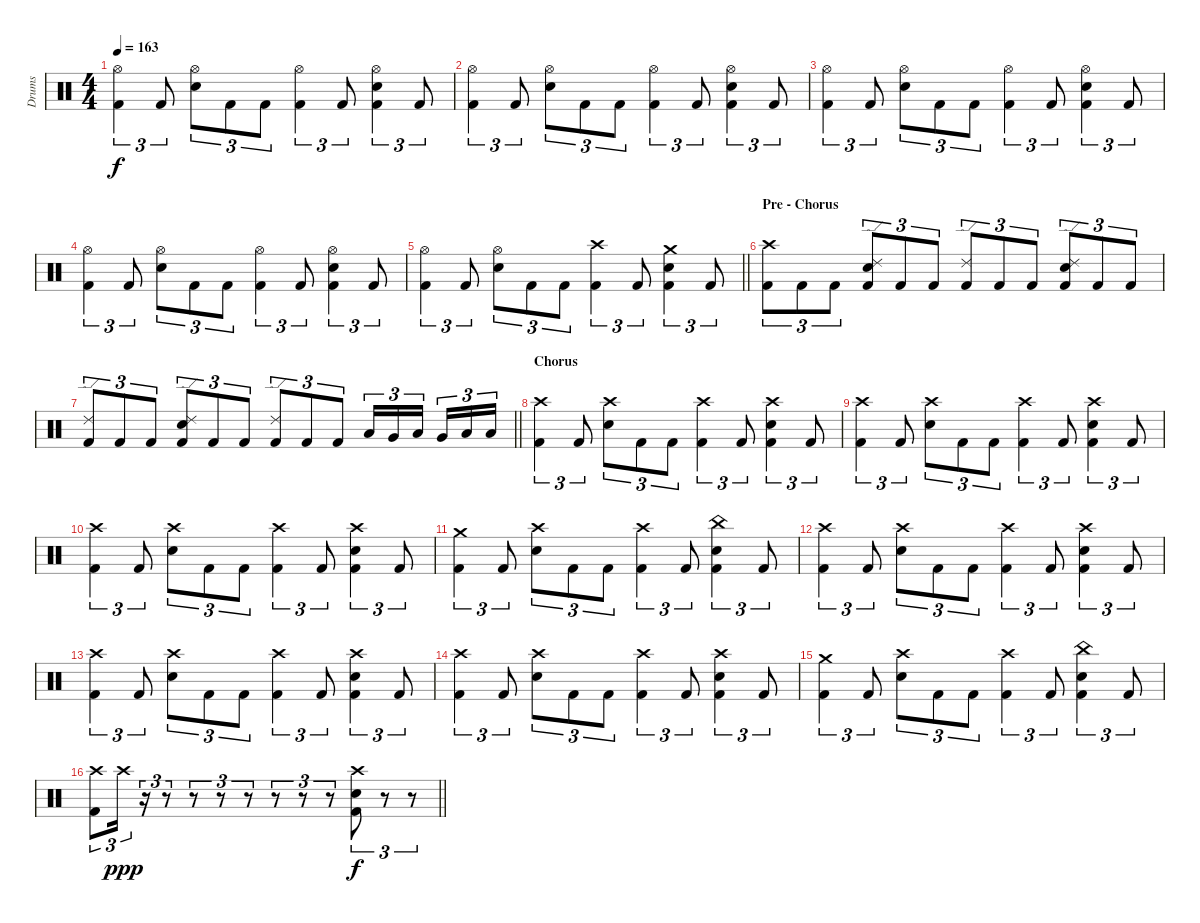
\track ("Drums" "Drums") {instrument percussion}
\staff {score}
\articulation defaults
\ts (4 4)
\tempo 163
\clef neutral
\ks c
("Hi-Hat (open)" "Kick (hit) 2").4{tu (3 2) dy f} "Kick (hit) 2".8{tu (3 2)} ("Hi-Hat (open)" "Electric Snare (hit)").8{tu (3 2)} "Kick (hit) 2".8{tu (3 2)} "Kick (hit) 2".8{tu (3 2)} ("Hi-Hat (open)" "Kick (hit) 2").4{tu (3 2)} "Kick (hit) 2".8{tu (3 2)} ("Hi-Hat (open)" "Electric Snare (hit)" "Kick (hit) 2").4{tu (3 2)} "Kick (hit) 2".8{tu (3 2)} |
("Hi-Hat (open)" "Kick (hit) 2").4{tu (3 2)} "Kick (hit) 2".8{tu (3 2)} ("Hi-Hat (open)" "Electric Snare (hit)").8{tu (3 2)} "Kick (hit) 2".8{tu (3 2)} "Kick (hit) 2".8{tu (3 2)} ("Hi-Hat (open)" "Kick (hit) 2").4{tu (3 2)} "Kick (hit) 2".8{tu (3 2)} ("Hi-Hat (open)" "Electric Snare (hit)" "Kick (hit) 2").4{tu (3 2)} "Kick (hit) 2".8{tu (3 2)} |
("Hi-Hat (open)" "Kick (hit) 2").4{tu (3 2)} "Kick (hit) 2".8{tu (3 2)} ("Hi-Hat (open)" "Electric Snare (hit)").8{tu (3 2)} "Kick (hit) 2".8{tu (3 2)} "Kick (hit) 2".8{tu (3 2)} ("Hi-Hat (open)" "Kick (hit) 2").4{tu (3 2)} "Kick (hit) 2".8{tu (3 2)} ("Hi-Hat (open)" "Electric Snare (hit)" "Kick (hit) 2").4{tu (3 2)} "Kick (hit) 2".8{tu (3 2)} |
("Hi-Hat (open)" "Kick (hit) 2").4{tu (3 2)} "Kick (hit) 2".8{tu (3 2)} ("Hi-Hat (open)" "Electric Snare (hit)").8{tu (3 2)} "Kick (hit) 2".8{tu (3 2)} "Kick (hit) 2".8{tu (3 2)} ("Hi-Hat (open)" "Kick (hit) 2").4{tu (3 2)} "Kick (hit) 2".8{tu (3 2)} ("Hi-Hat (open)" "Electric Snare (hit)" "Kick (hit) 2").4{tu (3 2)} "Kick (hit) 2".8{tu (3 2)} |
\barLineRight lightlight
("Hi-Hat (open)" "Kick (hit) 2").4{tu (3 2)} "Kick (hit) 2".8{tu (3 2)} ("Hi-Hat (open)" "Electric Snare (hit)").8{tu (3 2)} "Kick (hit) 2".8{tu (3 2)} "Kick (hit) 2".8{tu (3 2)} ("Crash high (hit)" "Kick (hit) 2").4{tu (3 2)} "Kick (hit) 2".8{tu (3 2)} ("Crash medium (hit)" "Electric Snare (hit)" "Kick (hit) 2").4{tu (3 2)} "Kick (hit) 2".8{tu (3 2)} |
\section ("" "Pre - Chorus")
("Crash high (hit)" "Kick (hit) 2").8{tu (3 2)} "Kick (hit) 2".8{tu (3 2)} "Kick (hit) 2".8{tu (3 2)} ("Ride (edge) 2" "Electric Snare (hit)" "Kick (hit) 2").8{tu (3 2)} "Kick (hit) 2".8{tu (3 2)} "Kick (hit) 2".8{tu (3 2)} ("Ride (edge) 2" "Kick (hit) 2").8{tu (3 2)} "Kick (hit) 2".8{tu (3 2)} "Kick (hit) 2".8{tu (3 2)} ("Ride (edge) 2" "Electric Snare (hit)" "Kick (hit) 2").8{tu (3 2)} "Kick (hit) 2".8{tu (3 2)} "Kick (hit) 2".8{tu (3 2)} |
\barLineRight lightlight
("Ride (edge) 2" "Kick (hit) 2").8{tu (3 2)} "Kick (hit) 2".8{tu (3 2)} "Kick (hit) 2".8{tu (3 2)} ("Ride (edge) 2" "Electric Snare (hit)" "Kick (hit) 2").8{tu (3 2)} "Kick (hit) 2".8{tu (3 2)} "Kick (hit) 2".8{tu (3 2)} ("Ride (edge) 2" "Kick (hit) 2").8{tu (3 2)} "Kick (hit) 2".8{tu (3 2)} "Kick (hit) 2".8{tu (3 2)} "Low Tom (hit)".16{tu (3 2)} "Very Low Tom (hit)".16{tu (3 2)} "Low Floor Tom (hit)".16{tu (3 2) beam splitsecondary} "Very Low Tom (hit)".16{tu (3 2)} "Low Floor Tom (hit)".16{tu (3 2)} "Low Floor Tom (hit)".16{tu (3 2)} |
\section ("" "Chorus")
("Crash high (hit)" "Kick (hit) 2").4{tu (3 2)} "Kick (hit) 2".8{tu (3 2)} ("Crash high (hit)" "Electric Snare (hit)").8{tu (3 2)} "Kick (hit) 2".8{tu (3 2)} "Kick (hit) 2".8{tu (3 2)} ("Crash high (hit)" "Kick (hit) 2").4{tu (3 2)} "Kick (hit) 2".8{tu (3 2)} ("Crash high (hit)" "Electric Snare (hit)" "Kick (hit) 2").4{tu (3 2)} "Kick (hit) 2".8{tu (3 2)} |
("Crash high (hit)" "Kick (hit) 2").4{tu (3 2)} "Kick (hit) 2".8{tu (3 2)} ("Crash high (hit)" "Electric Snare (hit)").8{tu (3 2)} "Kick (hit) 2".8{tu (3 2)} "Kick (hit) 2".8{tu (3 2)} ("Crash high (hit)" "Kick (hit) 2").4{tu (3 2)} "Kick (hit) 2".8{tu (3 2)} ("Crash high (hit)" "Electric Snare (hit)" "Kick (hit) 2").4{tu (3 2)} "Kick (hit) 2".8{tu (3 2)} |
("Crash high (hit)" "Kick (hit) 2").4{tu (3 2)} "Kick (hit) 2".8{tu (3 2)} ("Crash high (hit)" "Electric Snare (hit)").8{tu (3 2)} "Kick (hit) 2".8{tu (3 2)} "Kick (hit) 2".8{tu (3 2)} ("Crash high (hit)" "Kick (hit) 2").4{tu (3 2)} "Kick (hit) 2".8{tu (3 2)} ("Crash high (hit)" "Electric Snare (hit)" "Kick (hit) 2").4{tu (3 2)} "Kick (hit) 2".8{tu (3 2)} |
("Crash medium (hit)" "Kick (hit) 2").4{tu (3 2)} "Kick (hit) 2".8{tu (3 2)} ("Crash high (hit)" "Electric Snare (hit)").8{tu (3 2)} "Kick (hit) 2".8{tu (3 2)} "Kick (hit) 2".8{tu (3 2)} ("Crash high (hit)" "Kick (hit) 2").4{tu (3 2)} "Kick (hit) 2".8{tu (3 2)} ("China (hit)" "Electric Snare (hit)" "Kick (hit) 2").4{tu (3 2)} "Kick (hit) 2".8{tu (3 2)} |
("Crash high (hit)" "Kick (hit) 2").4{tu (3 2)} "Kick (hit) 2".8{tu (3 2)} ("Crash high (hit)" "Electric Snare (hit)").8{tu (3 2)} "Kick (hit) 2".8{tu (3 2)} "Kick (hit) 2".8{tu (3 2)} ("Crash high (hit)" "Kick (hit) 2").4{tu (3 2)} "Kick (hit) 2".8{tu (3 2)} ("Crash high (hit)" "Electric Snare (hit)" "Kick (hit) 2").4{tu (3 2)} "Kick (hit) 2".8{tu (3 2)} |
("Crash high (hit)" "Kick (hit) 2").4{tu (3 2)} "Kick (hit) 2".8{tu (3 2)} ("Crash high (hit)" "Electric Snare (hit)").8{tu (3 2)} "Kick (hit) 2".8{tu (3 2)} "Kick (hit) 2".8{tu (3 2)} ("Crash high (hit)" "Kick (hit) 2").4{tu (3 2)} "Kick (hit) 2".8{tu (3 2)} ("Crash high (hit)" "Electric Snare (hit)" "Kick (hit) 2").4{tu (3 2)} "Kick (hit) 2".8{tu (3 2)} |
("Crash high (hit)" "Kick (hit) 2").4{tu (3 2)} "Kick (hit) 2".8{tu (3 2)} ("Crash high (hit)" "Electric Snare (hit)").8{tu (3 2)} "Kick (hit) 2".8{tu (3 2)} "Kick (hit) 2".8{tu (3 2)} ("Crash high (hit)" "Kick (hit) 2").4{tu (3 2)} "Kick (hit) 2".8{tu (3 2)} ("Crash high (hit)" "Electric Snare (hit)" "Kick (hit) 2").4{tu (3 2)} "Kick (hit) 2".8{tu (3 2)} |
("Crash medium (hit)" "Kick (hit) 2").4{tu (3 2)} "Kick (hit) 2".8{tu (3 2)} ("Crash high (hit)" "Electric Snare (hit)").8{tu (3 2)} "Kick (hit) 2".8{tu (3 2)} "Kick (hit) 2".8{tu (3 2)} ("Crash high (hit)" "Kick (hit) 2").4{tu (3 2)} "Kick (hit) 2".8{tu (3 2)} ("China (hit)" "Electric Snare (hit)" "Kick (hit) 2").4{tu (3 2)} "Kick (hit) 2".8{tu (3 2)} |
\barLineRight lightlight
("Crash high (hit)" "Kick (hit) 2").8{tu (3 2)} "Crash high (hit)".16{tu (3 2) dy ppp} r.16{tu (3 2)} r.8{tu (3 2)} r.8{tu (3 2)} r.8{tu (3 2)} r.8{tu (3 2)} r.8{tu (3 2)} r.8{tu (3 2)} r.8{tu (3 2)} ("Crash high (hit)" "Electric Snare (hit)" "Kick (hit) 2").8{tu (3 2) dy f} r.8{tu (3 2)} r.8{tu (3 2)}
